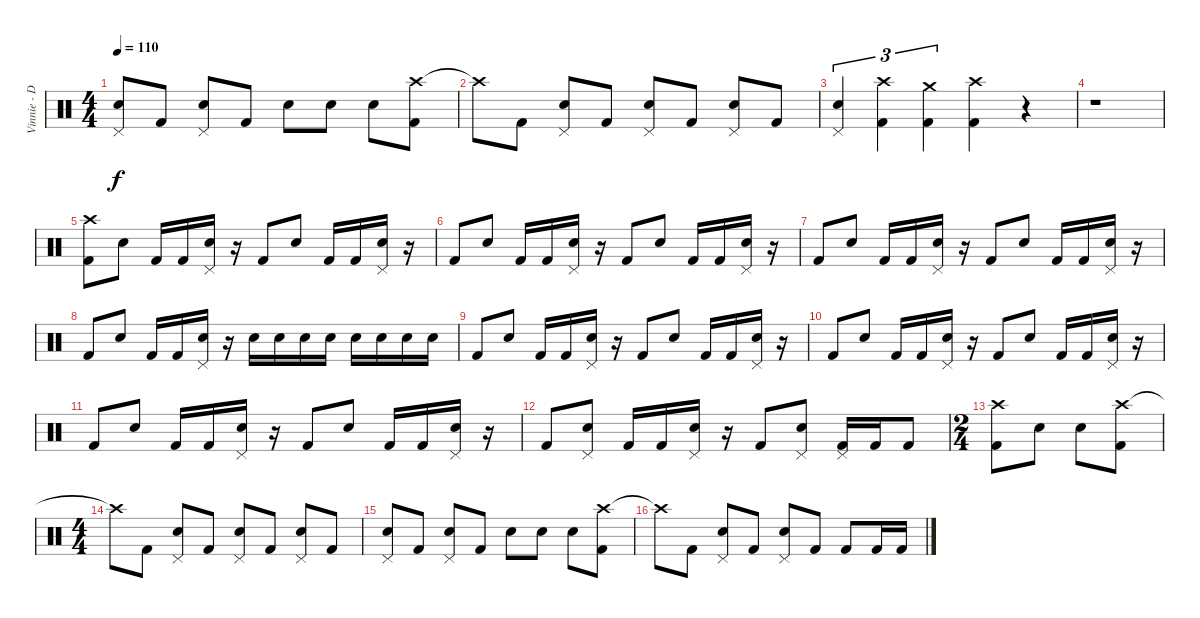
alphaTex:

\track ("Vinnie - Drums" "Vinnie - D") {instrument percussion}
\staff {score}
\articulation defaults
\ts (4 4)
\tempo 110
\clef neutral
\ks c
("Pedal Hi-Hat (hit)" "Electric Snare (hit)").8{dy f} "Kick (hit) 2".8 ("Pedal Hi-Hat (hit)" "Electric Snare (hit)").8 "Kick (hit) 2".8 "Electric Snare (hit)".8 "Electric Snare (hit)".8 "Electric Snare (hit)".8 ("Crash high (hit)" "Kick (hit) 2").8 |
"Crash high (hit)"{t}.8 "Kick (hit) 2".8 ("Pedal Hi-Hat (hit)" "Electric Snare (hit)").8 "Kick (hit) 2".8 ("Pedal Hi-Hat (hit)" "Electric Snare (hit)").8 "Kick (hit) 2".8 ("Pedal Hi-Hat (hit)" "Electric Snare (hit)").8 "Kick (hit) 2".8 |
("Pedal Hi-Hat (hit)" "Electric Snare (hit)").4{tu (3 2)} ("Crash high (hit)" "Kick (hit) 2").4{tu (3 2)} ("Crash medium (hit)" "Kick (hit) 2").4{tu (3 2)} ("Crash high (hit)" "Kick (hit) 2").4 r.4 |
r.1 |
("Crash high (hit)" "Kick (hit) 2").8 "Electric Snare (hit)".8 "Kick (hit) 2".16 "Kick (hit) 2".16 ("Pedal Hi-Hat (hit)" "Electric Snare (hit)").16 r.16 "Kick (hit) 2".8 "Electric Snare (hit)".8 "Kick (hit) 2".16 "Kick (hit) 2".16 ("Pedal Hi-Hat (hit)" "Electric Snare (hit)").16 r.16 |
"Kick (hit) 2".8 "Electric Snare (hit)".8 "Kick (hit) 2".16 "Kick (hit) 2".16 ("Pedal Hi-Hat (hit)" "Electric Snare (hit)").16 r.16 "Kick (hit) 2".8 "Electric Snare (hit)".8 "Kick (hit) 2".16 "Kick (hit) 2".16 ("Pedal Hi-Hat (hit)" "Electric Snare (hit)").16 r.16 |
"Kick (hit) 2".8 "Electric Snare (hit)".8 "Kick (hit) 2".16 "Kick (hit) 2".16 ("Pedal Hi-Hat (hit)" "Electric Snare (hit)").16 r.16 "Kick (hit) 2".8 "Electric Snare (hit)".8 "Kick (hit) 2".16 "Kick (hit) 2".16 ("Pedal Hi-Hat (hit)" "Electric Snare (hit)").16 r.16 |
"Kick (hit) 2".8 "Electric Snare (hit)".8 "Kick (hit) 2".16 "Kick (hit) 2".16 ("Pedal Hi-Hat (hit)" "Electric Snare (hit)").16 r.16 "Electric Snare (hit)".16 "Electric Snare (hit)".16 "Electric Snare (hit)".16 "Electric Snare (hit)".16 "Electric Snare (hit)".16 "Electric Snare (hit)".16 "Electric Snare (hit)".16 "Electric Snare (hit)".16 |
"Kick (hit) 2".8 "Electric Snare (hit)".8 "Kick (hit) 2".16 "Kick (hit) 2".16 ("Pedal Hi-Hat (hit)" "Electric Snare (hit)").16 r.16 "Kick (hit) 2".8 "Electric Snare (hit)".8 "Kick (hit) 2".16 "Kick (hit) 2".16 ("Pedal Hi-Hat (hit)" "Electric Snare (hit)").16 r.16 |
"Kick (hit) 2".8 "Electric Snare (hit)".8 "Kick (hit) 2".16 "Kick (hit) 2".16 ("Pedal Hi-Hat (hit)" "Electric Snare (hit)").16 r.16 "Kick (hit) 2".8 "Electric Snare (hit)".8 "Kick (hit) 2".16 "Kick (hit) 2".16 ("Pedal Hi-Hat (hit)" "Electric Snare (hit)").16 r.16 |
"Kick (hit) 2".8 "Electric Snare (hit)".8 "Kick (hit) 2".16 "Kick (hit) 2".16 ("Pedal Hi-Hat (hit)" "Electric Snare (hit)").16 r.16 "Kick (hit) 2".8 "Electric Snare (hit)".8 "Kick (hit) 2".16 "Kick (hit) 2".16 ("Pedal Hi-Hat (hit)" "Electric Snare (hit)").16 r.16 |
"Kick (hit) 2".8 ("Pedal Hi-Hat (hit)" "Electric Snare (hit)").8 "Kick (hit) 2".16 "Kick (hit) 2".16 ("Pedal Hi-Hat (hit)" "Electric Snare (hit)").16 r.16 "Kick (hit) 2".8 ("Pedal Hi-Hat (hit)" "Electric Snare (hit)").8 ("Pedal Hi-Hat (hit)" "Kick (hit) 2").16 "Kick (hit) 2".16 "Kick (hit) 2".8 |
\ts (2 4)
("Crash high (hit)" "Kick (hit) 2").8 "Electric Snare (hit)".8 "Electric Snare (hit)".8 ("Crash high (hit)" "Kick (hit) 2").8 |
\ts (4 4)
"Crash high (hit)"{t}.8 "Kick (hit) 2".8 ("Pedal Hi-Hat (hit)" "Electric Snare (hit)").8 "Kick (hit) 2".8 ("Pedal Hi-Hat (hit)" "Electric Snare (hit)").8 "Kick (hit) 2".8 ("Pedal Hi-Hat (hit)" "Electric Snare (hit)").8 "Kick (hit) 2".8 |
("Pedal Hi-Hat (hit)" "Electric Snare (hit)").8 "Kick (hit) 2".8 ("Pedal Hi-Hat (hit)" "Electric Snare (hit)").8 "Kick (hit) 2".8 "Electric Snare (hit)".8 "Electric Snare (hit)".8 "Electric Snare (hit)".8 ("Crash high (hit)" "Kick (hit) 2").8 |
"Crash high (hit)"{t}.8 "Kick (hit) 2".8 ("Pedal Hi-Hat (hit)" "Electric Snare (hit)").8 "Kick (hit) 2".8 ("Pedal Hi-Hat (hit)" "Electric Snare (hit)").8 "Kick (hit) 2".8 "Kick (hit) 2".8 "Kick (hit) 2".16 "Kick (hit) 2".16
